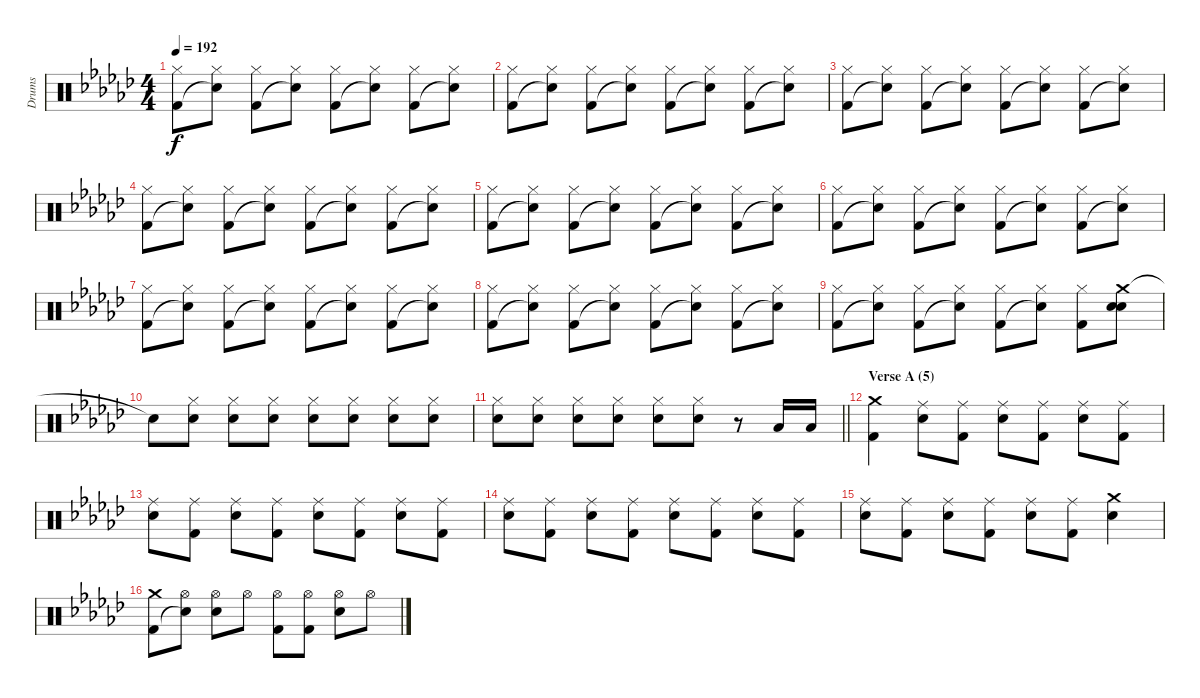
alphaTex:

\track ("Drums" "Drums") {instrument percussion}
\staff {score}
\articulation defaults
\ts (4 4)
\tempo 192
\clef neutral
\ks ebminor
("Hi-Hat (closed)" "Kick (hit) 2").8{dy f} ("Hi-Hat (closed)" "Snare (hit)"{t}).8 ("Hi-Hat (closed)" "Kick (hit) 2").8 ("Hi-Hat (closed)" "Snare (hit)"{t}).8 ("Hi-Hat (closed)" "Kick (hit) 2").8 ("Hi-Hat (closed)" "Snare (hit)"{t}).8 ("Hi-Hat (closed)" "Kick (hit) 2").8 ("Hi-Hat (closed)" "Snare (hit)"{t}).8 |
("Hi-Hat (closed)" "Kick (hit) 2").8 ("Hi-Hat (closed)" "Snare (hit)"{t}).8 ("Hi-Hat (closed)" "Kick (hit) 2").8 ("Hi-Hat (closed)" "Snare (hit)"{t}).8 ("Hi-Hat (closed)" "Kick (hit) 2").8 ("Hi-Hat (closed)" "Snare (hit)"{t}).8 ("Hi-Hat (closed)" "Kick (hit) 2").8 ("Hi-Hat (closed)" "Snare (hit)"{t}).8 |
("Hi-Hat (closed)" "Kick (hit) 2").8 ("Hi-Hat (closed)" "Snare (hit)"{t}).8 ("Hi-Hat (closed)" "Kick (hit) 2").8 ("Hi-Hat (closed)" "Snare (hit)"{t}).8 ("Hi-Hat (closed)" "Kick (hit) 2").8 ("Hi-Hat (closed)" "Snare (hit)"{t}).8 ("Hi-Hat (closed)" "Kick (hit) 2").8 ("Hi-Hat (closed)" "Snare (hit)"{t}).8 |
("Hi-Hat (closed)" "Kick (hit) 2").8 ("Hi-Hat (closed)" "Snare (hit)"{t}).8 ("Hi-Hat (closed)" "Kick (hit) 2").8 ("Hi-Hat (closed)" "Snare (hit)"{t}).8 ("Hi-Hat (closed)" "Kick (hit) 2").8 ("Hi-Hat (closed)" "Snare (hit)"{t}).8 ("Hi-Hat (closed)" "Kick (hit) 2").8 ("Hi-Hat (closed)" "Snare (hit)"{t}).8 |
("Hi-Hat (closed)" "Kick (hit) 2").8 ("Hi-Hat (closed)" "Snare (hit)"{t}).8 ("Hi-Hat (closed)" "Kick (hit) 2").8 ("Hi-Hat (closed)" "Snare (hit)"{t}).8 ("Hi-Hat (closed)" "Kick (hit) 2").8 ("Hi-Hat (closed)" "Snare (hit)"{t}).8 ("Hi-Hat (closed)" "Kick (hit) 2").8 ("Hi-Hat (closed)" "Snare (hit)"{t}).8 |
("Hi-Hat (closed)" "Kick (hit) 2").8 ("Hi-Hat (closed)" "Snare (hit)"{t}).8 ("Hi-Hat (closed)" "Kick (hit) 2").8 ("Hi-Hat (closed)" "Snare (hit)"{t}).8 ("Hi-Hat (closed)" "Kick (hit) 2").8 ("Hi-Hat (closed)" "Snare (hit)"{t}).8 ("Hi-Hat (closed)" "Kick (hit) 2").8 ("Hi-Hat (closed)" "Snare (hit)"{t}).8 |
("Hi-Hat (closed)" "Kick (hit) 2").8 ("Hi-Hat (closed)" "Snare (hit)"{t}).8 ("Hi-Hat (closed)" "Kick (hit) 2").8 ("Hi-Hat (closed)" "Snare (hit)"{t}).8 ("Hi-Hat (closed)" "Kick (hit) 2").8 ("Hi-Hat (closed)" "Snare (hit)"{t}).8 ("Hi-Hat (closed)" "Kick (hit) 2").8 ("Hi-Hat (closed)" "Snare (hit)"{t}).8 |
("Hi-Hat (closed)" "Kick (hit) 2").8 ("Hi-Hat (closed)" "Snare (hit)"{t}).8 ("Hi-Hat (closed)" "Kick (hit) 2").8 ("Hi-Hat (closed)" "Snare (hit)"{t}).8 ("Hi-Hat (closed)" "Kick (hit) 2").8 ("Hi-Hat (closed)" "Snare (hit)"{t}).8 ("Hi-Hat (closed)" "Kick (hit) 2").8 ("Hi-Hat (closed)" "Snare (hit)"{t}).8 |
("Hi-Hat (closed)" "Kick (hit) 2").8 ("Hi-Hat (closed)" "Snare (hit)"{t}).8 ("Hi-Hat (closed)" "Kick (hit) 2").8 ("Hi-Hat (closed)" "Snare (hit)"{t}).8 ("Hi-Hat (closed)" "Kick (hit) 2").8 ("Hi-Hat (closed)" "Snare (hit)"{t}).8 ("Hi-Hat (closed)" "Kick (hit) 2").8 ("Crash medium (hit)" "Electric Snare (hit)" "Snare (hit)").8 |
"Snare (hit)"{t}.8 ("Hi-Hat (closed)" "Electric Snare (hit)").8 ("Hi-Hat (closed)" "Electric Snare (hit)").8 ("Hi-Hat (closed)" "Electric Snare (hit)").8 ("Hi-Hat (closed)" "Electric Snare (hit)").8 ("Hi-Hat (closed)" "Electric Snare (hit)").8 ("Hi-Hat (closed)" "Electric Snare (hit)").8 ("Hi-Hat (closed)" "Electric Snare (hit)").8 |
\barLineRight lightlight
("Hi-Hat (closed)" "Electric Snare (hit)").8 ("Hi-Hat (closed)" "Electric Snare (hit)").8 ("Hi-Hat (closed)" "Electric Snare (hit)").8 ("Hi-Hat (closed)" "Electric Snare (hit)").8 ("Hi-Hat (closed)" "Electric Snare (hit)").8 ("Hi-Hat (closed)" "Electric Snare (hit)").8 r.8 "Low Floor Tom (hit)".16 "Low Floor Tom (hit)".16 |
\section ("" "Verse A (5)")
("Crash medium (hit)" "Kick (hit) 2").4 ("Ride (middle)" "Electric Snare (hit)").8 ("Ride (middle)" "Kick (hit) 2").8 ("Ride (middle)" "Electric Snare (hit)").8 ("Ride (middle)" "Kick (hit) 2").8 ("Ride (middle)" "Electric Snare (hit)").8 ("Ride (middle)" "Kick (hit) 2").8 |
("Ride (middle)" "Electric Snare (hit)").8 ("Ride (middle)" "Kick (hit) 2").8 ("Ride (middle)" "Electric Snare (hit)").8 ("Ride (middle)" "Kick (hit) 2").8 ("Ride (middle)" "Electric Snare (hit)").8 ("Ride (middle)" "Kick (hit) 2").8 ("Ride (middle)" "Electric Snare (hit)").8 ("Ride (middle)" "Kick (hit) 2").8 |
("Ride (middle)" "Electric Snare (hit)").8 ("Ride (middle)" "Kick (hit) 2").8 ("Ride (middle)" "Electric Snare (hit)").8 ("Ride (middle)" "Kick (hit) 2").8 ("Ride (middle)" "Electric Snare (hit)").8 ("Ride (middle)" "Kick (hit) 2").8 ("Ride (middle)" "Electric Snare (hit)").8 ("Ride (middle)" "Kick (hit) 2").8 |
("Ride (middle)" "Electric Snare (hit)").8 ("Ride (middle)" "Kick (hit) 2").8 ("Ride (middle)" "Electric Snare (hit)").8 ("Ride (middle)" "Kick (hit) 2").8 ("Ride (middle)" "Electric Snare (hit)").8 ("Ride (middle)" "Kick (hit) 2").8 ("Crash medium (hit)" "Electric Snare (hit)").4 |
("Crash medium (hit)" "Kick (hit) 2").8 ("Hi-Hat (open)" "Snare (hit)"{t}).8 ("Hi-Hat (open)" "Electric Snare (hit)").8 "Hi-Hat (open)".8 ("Hi-Hat (open)" "Kick (hit) 2").8 ("Hi-Hat (open)" "Kick (hit) 2").8 ("Hi-Hat (open)" "Electric Snare (hit)").8 "Hi-Hat (open)".8
